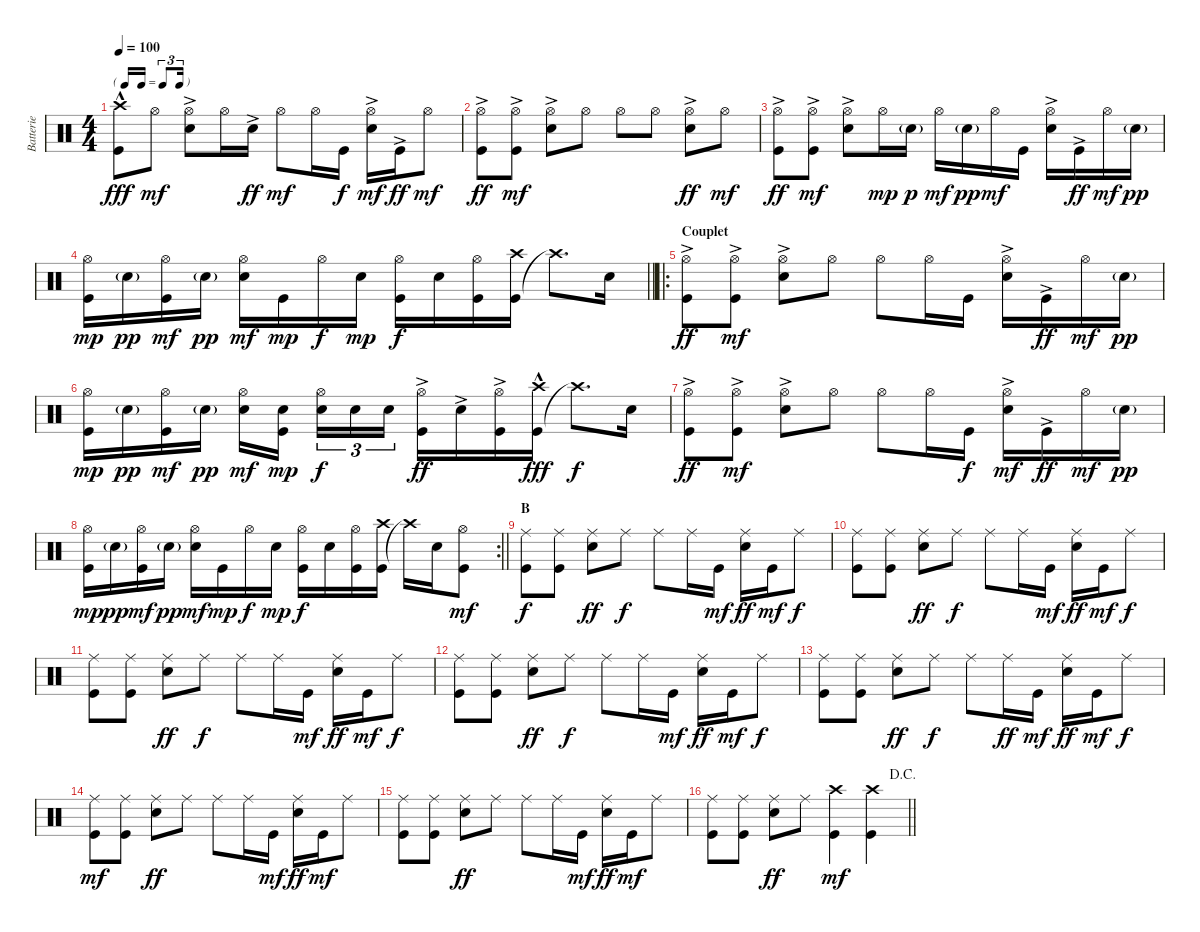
\track ("Batterie" "Batterie") {instrument percussion}
\staff {score}
\articulation defaults
\ts (4 4)
\tf triplet16th
\tempo 100
\clef neutral
\ks c
("Kick (hit)"{hac} "Crash high (hit)"{hac}).8{dy fff} "Hi-Hat (open)".8{dy mf} ("Snare (hit) 2"{ac} "Hi-Hat (open)").8 "Hi-Hat (open)".16 "Snare (hit) 2"{ac}.16{dy ff} "Hi-Hat (open)".8{dy mf} "Hi-Hat (open)".16 "Kick (hit)".16{dy f} ("Snare (hit) 2"{ac} "Hi-Hat (open)").16{dy mf} "Kick (hit)"{ac}.16{dy ff} "Hi-Hat (open)".8{dy mf} |
("Hi-Hat (open)" "Kick (hit)"{ac}).8{dy ff} ("Kick (hit)"{ac} "Hi-Hat (open)").8{dy mf} ("Snare (hit) 2"{ac} "Hi-Hat (open)").8 "Hi-Hat (open)".8 "Hi-Hat (open)".8 "Hi-Hat (open)".8 ("Hi-Hat (open)" "Snare (hit) 2"{ac}).8{dy ff} "Hi-Hat (open)".8{dy mf} |
("Hi-Hat (open)" "Kick (hit)"{ac}).8{dy ff} ("Kick (hit)"{ac} "Hi-Hat (open)").8{dy mf} ("Snare (hit) 2"{ac} "Hi-Hat (open)").8 "Hi-Hat (open)".16{dy mp} "Snare (hit) 2"{g}.16{dy p} "Hi-Hat (open)".16{dy mf} "Snare (hit) 2"{g}.16{dy pp} "Hi-Hat (open)".16{dy mf} "Kick (hit)".16 ("Snare (hit) 2"{ac} "Hi-Hat (open)").16 "Kick (hit)"{ac}.16{dy ff} "Hi-Hat (open)".16{dy mf} "Snare (hit) 2"{g}.16{dy pp} |
\barLineRight lightlight
("Hi-Hat (open)" "Kick (hit)").16{dy mp} "Snare (hit) 2"{g}.16{dy pp} ("Hi-Hat (open)" "Kick (hit)").16{dy mf} "Snare (hit) 2"{g}.16{dy pp} ("Snare (hit) 2" "Hi-Hat (open)").16{dy mf} "Kick (hit)".16{dy mp} "Hi-Hat (open)".16{dy f} "Snare (hit) 2".16{dy mp} ("Kick (hit)" "Hi-Hat (open)").16{dy f} "Snare (hit) 2".16 ("Kick (hit)" "Hi-Hat (open)").16 ("Kick (hit)" "Crash high (hit)").16 "Crash high (hit)"{t}.8{d} "Snare (hit) 2".16 |
\ro
\section ("" "Couplet")
("Hi-Hat (open)" "Kick (hit)"{ac}).8{dy ff} ("Kick (hit)"{ac} "Hi-Hat (open)").8{dy mf} ("Snare (hit) 2"{ac} "Hi-Hat (open)").8 "Hi-Hat (open)".8 "Hi-Hat (open)".8 "Hi-Hat (open)".16 "Kick (hit)".16 ("Snare (hit) 2"{ac} "Hi-Hat (open)").16 "Kick (hit)"{ac}.16{dy ff} "Hi-Hat (open)".16{dy mf} "Snare (hit) 2"{g}.16{dy pp} |
("Hi-Hat (open)" "Kick (hit)").16{dy mp} "Snare (hit) 2"{g}.16{dy pp} ("Hi-Hat (open)" "Kick (hit)").16{dy mf} "Snare (hit) 2"{g}.16{dy pp} ("Snare (hit) 2" "Hi-Hat (open)").16{dy mf} ("Kick (hit)" "Snare (hit) 2").16{dy mp beam splitsecondary} ("Hi-Hat (open)" "Snare (hit) 2").16{tu (3 2) dy f} "Snare (hit) 2".16{tu (3 2)} "Snare (hit) 2".16{tu (3 2)} ("Kick (hit)"{ac} "Hi-Hat (open)").16{dy ff} "Snare (hit) 2"{ac}.16 ("Kick (hit)"{ac} "Hi-Hat (open)").16 ("Kick (hit)"{hac} "Crash high (hit)").16{dy fff} "Crash high (hit)"{t}.8{d dy f} "Snare (hit) 2".16 |
("Hi-Hat (open)" "Kick (hit)"{ac}).8{dy ff} ("Kick (hit)"{ac} "Hi-Hat (open)").8{dy mf} ("Snare (hit) 2"{ac} "Hi-Hat (open)").8 "Hi-Hat (open)".8 "Hi-Hat (open)".8 "Hi-Hat (open)".16 "Kick (hit)".16{dy f} ("Snare (hit) 2"{ac} "Hi-Hat (open)").16{dy mf} "Kick (hit)"{ac}.16{dy ff} "Hi-Hat (open)".16{dy mf} "Snare (hit) 2"{g}.16{dy pp} |
\rc 2
\barLineRight lightlight
("Hi-Hat (open)" "Kick (hit)").16{dy mp} "Snare (hit) 2"{g}.16{dy pp} ("Hi-Hat (open)" "Kick (hit)").16{dy mf} "Snare (hit) 2"{g}.16{dy pp} ("Snare (hit) 2" "Hi-Hat (open)").16{dy mf} "Kick (hit)".16{dy mp} "Hi-Hat (open)".16{dy f} "Snare (hit) 2".16{dy mp} ("Kick (hit)" "Hi-Hat (open)").16{dy f} "Snare (hit) 2".16 ("Kick (hit)" "Hi-Hat (open)").16 ("Kick (hit)" "Crash high (hit)").16 "Crash high (hit)"{t}.16 "Snare (hit) 2".16 ("Kick (hit)" "Hi-Hat (open)").8{dy mf} |
\section ("" "B")
("Ride (middle)" "Kick (hit)").8{dy f} ("Ride (middle)" "Kick (hit)").8 ("Ride (middle)" "Snare (hit) 2").8{dy ff} "Ride (middle)".8{dy f} "Ride (middle)".8 "Ride (middle)".16 "Kick (hit)".16{dy mf} ("Snare (hit) 2" "Ride (middle)").16{dy ff} "Kick (hit)".16{dy mf} "Ride (middle)".8{dy f} |
("Ride (middle)" "Kick (hit)").8 ("Ride (middle)" "Kick (hit)").8 ("Ride (middle)" "Snare (hit) 2").8{dy ff} "Ride (middle)".8{dy f} "Ride (middle)".8 "Ride (middle)".16 "Kick (hit)".16{dy mf} ("Snare (hit) 2" "Ride (middle)").16{dy ff} "Kick (hit)".16{dy mf} "Ride (middle)".8{dy f} |
("Ride (middle)" "Kick (hit)").8 ("Ride (middle)" "Kick (hit)").8 ("Ride (middle)" "Snare (hit) 2").8{dy ff} "Ride (middle)".8{dy f} "Ride (middle)".8 "Ride (middle)".16 "Kick (hit)".16{dy mf} ("Snare (hit) 2" "Ride (middle)").16{dy ff} "Kick (hit)".16{dy mf} "Ride (middle)".8{dy f} |
("Ride (middle)" "Kick (hit)").8 ("Ride (middle)" "Kick (hit)").8 ("Ride (middle)" "Snare (hit) 2").8{dy ff} "Ride (middle)".8{dy f} "Ride (middle)".8 "Ride (middle)".16 "Kick (hit)".16{dy mf} ("Snare (hit) 2" "Ride (middle)").16{dy ff} "Kick (hit)".16{dy mf} "Ride (middle)".8{dy f} |
("Ride (middle)" "Kick (hit)").8 ("Ride (middle)" "Kick (hit)").8 ("Ride (middle)" "Snare (hit) 2").8{dy ff} "Ride (middle)".8{dy f} "Ride (middle)".8 "Ride (middle)".16{dy ff} "Kick (hit)".16{dy mf} ("Snare (hit) 2" "Ride (middle)").16{dy ff} "Kick (hit)".16{dy mf} "Ride (middle)".8{dy f} |
("Ride (middle)" "Kick (hit)").8{dy mf} ("Ride (middle)" "Kick (hit)").8 ("Ride (middle)" "Snare (hit) 2").8{dy ff} "Ride (middle)".8 "Ride (middle)".8 "Ride (middle)".16 "Kick (hit)".16{dy mf} ("Snare (hit) 2" "Ride (middle)").16{dy ff} "Kick (hit)".16{dy mf} "Ride (middle)".8 |
("Ride (middle)" "Kick (hit)").8 ("Ride (middle)" "Kick (hit)").8 ("Ride (middle)" "Snare (hit) 2").8{dy ff} "Ride (middle)".8 "Ride (middle)".8 "Ride (middle)".16 "Kick (hit)".16{dy mf} ("Snare (hit) 2" "Ride (middle)").16{dy ff} "Kick (hit)".16{dy mf} "Ride (middle)".8 |
\jump dacapo
\barLineRight lightlight
("Ride (middle)" "Kick (hit)").8 ("Ride (middle)" "Kick (hit)").8 ("Ride (middle)" "Snare (hit) 2").8{dy ff} "Ride (middle)".8 ("Kick (hit)" "Crash high (hit)").4{dy mf} ("Kick (hit)" "Crash high (hit)").4
